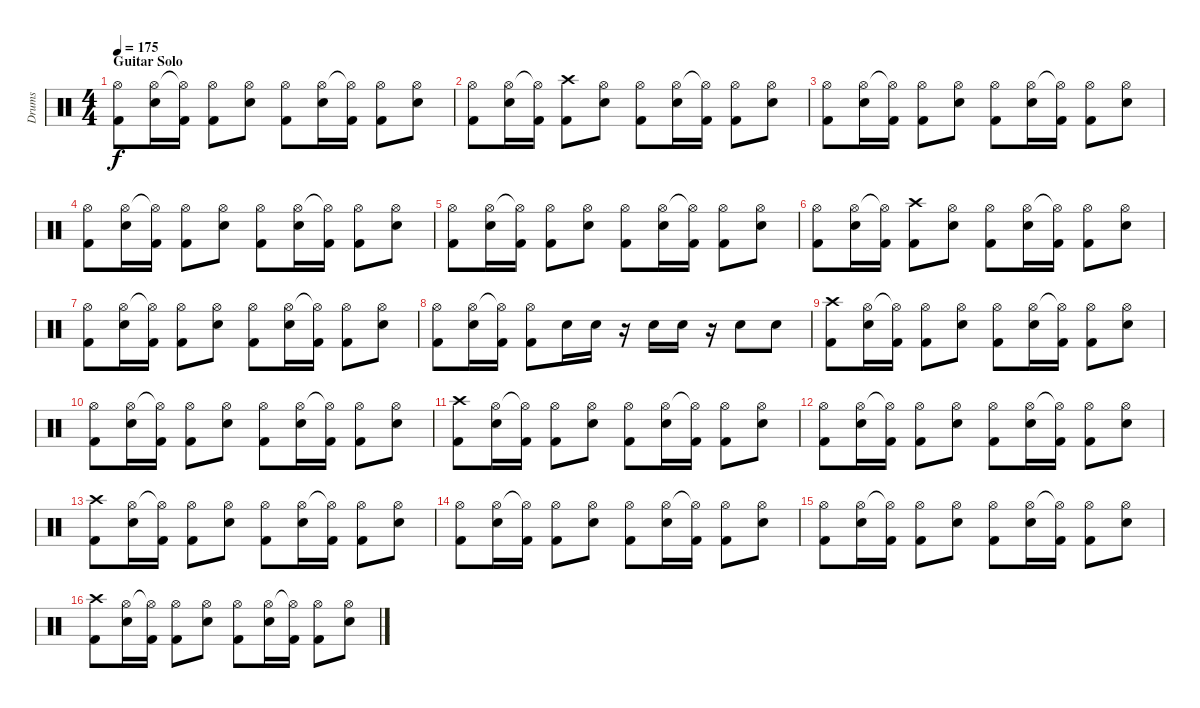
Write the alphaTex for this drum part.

\track ("Drums" "Drums") {instrument percussion}
\staff {score}
\articulation defaults
\ts (4 4)
\section ("" "Guitar Solo")
\tempo 175
\clef neutral
\ks c
("Hi-Hat (open)" "Kick (hit) 2").8{dy f} ("Hi-Hat (open)" "Electric Snare (hit)").16 ("Hi-Hat (open)"{t} "Kick (hit) 2").16 ("Hi-Hat (open)" "Kick (hit) 2").8 ("Hi-Hat (open)" "Electric Snare (hit)").8 ("Hi-Hat (open)" "Kick (hit) 2").8 ("Hi-Hat (open)" "Electric Snare (hit)").16 ("Hi-Hat (open)"{t} "Kick (hit) 2").16 ("Hi-Hat (open)" "Kick (hit) 2").8 ("Hi-Hat (open)" "Electric Snare (hit)").8 |
("Hi-Hat (open)" "Kick (hit) 2").8 ("Hi-Hat (open)" "Electric Snare (hit)").16 ("Hi-Hat (open)"{t} "Kick (hit) 2").16 ("Crash high (hit)" "Kick (hit) 2").8 ("Hi-Hat (open)" "Electric Snare (hit)").8 ("Hi-Hat (open)" "Kick (hit) 2").8 ("Hi-Hat (open)" "Electric Snare (hit)").16 ("Hi-Hat (open)"{t} "Kick (hit) 2").16 ("Hi-Hat (open)" "Kick (hit) 2").8 ("Hi-Hat (open)" "Electric Snare (hit)").8 |
("Hi-Hat (open)" "Kick (hit) 2").8 ("Hi-Hat (open)" "Electric Snare (hit)").16 ("Hi-Hat (open)"{t} "Kick (hit) 2").16 ("Hi-Hat (open)" "Kick (hit) 2").8 ("Hi-Hat (open)" "Electric Snare (hit)").8 ("Hi-Hat (open)" "Kick (hit) 2").8 ("Hi-Hat (open)" "Electric Snare (hit)").16 ("Hi-Hat (open)"{t} "Kick (hit) 2").16 ("Hi-Hat (open)" "Kick (hit) 2").8 ("Hi-Hat (open)" "Electric Snare (hit)").8 |
("Hi-Hat (open)" "Kick (hit) 2").8 ("Hi-Hat (open)" "Electric Snare (hit)").16 ("Hi-Hat (open)"{t} "Kick (hit) 2").16 ("Hi-Hat (open)" "Kick (hit) 2").8 ("Hi-Hat (open)" "Electric Snare (hit)").8 ("Hi-Hat (open)" "Kick (hit) 2").8 ("Hi-Hat (open)" "Electric Snare (hit)").16 ("Hi-Hat (open)"{t} "Kick (hit) 2").16 ("Hi-Hat (open)" "Kick (hit) 2").8 ("Hi-Hat (open)" "Electric Snare (hit)").8 |
("Hi-Hat (open)" "Kick (hit) 2").8 ("Hi-Hat (open)" "Electric Snare (hit)").16 ("Hi-Hat (open)"{t} "Kick (hit) 2").16 ("Hi-Hat (open)" "Kick (hit) 2").8 ("Hi-Hat (open)" "Electric Snare (hit)").8 ("Hi-Hat (open)" "Kick (hit) 2").8 ("Hi-Hat (open)" "Electric Snare (hit)").16 ("Hi-Hat (open)"{t} "Kick (hit) 2").16 ("Hi-Hat (open)" "Kick (hit) 2").8 ("Hi-Hat (open)" "Electric Snare (hit)").8 |
("Hi-Hat (open)" "Kick (hit) 2").8 ("Hi-Hat (open)" "Electric Snare (hit)").16 ("Hi-Hat (open)"{t} "Kick (hit) 2").16 ("Crash high (hit)" "Kick (hit) 2").8 ("Hi-Hat (open)" "Electric Snare (hit)").8 ("Hi-Hat (open)" "Kick (hit) 2").8 ("Hi-Hat (open)" "Electric Snare (hit)").16 ("Hi-Hat (open)"{t} "Kick (hit) 2").16 ("Hi-Hat (open)" "Kick (hit) 2").8 ("Hi-Hat (open)" "Electric Snare (hit)").8 |
("Hi-Hat (open)" "Kick (hit) 2").8 ("Hi-Hat (open)" "Electric Snare (hit)").16 ("Hi-Hat (open)"{t} "Kick (hit) 2").16 ("Hi-Hat (open)" "Kick (hit) 2").8 ("Hi-Hat (open)" "Electric Snare (hit)").8 ("Hi-Hat (open)" "Kick (hit) 2").8 ("Hi-Hat (open)" "Electric Snare (hit)").16 ("Hi-Hat (open)"{t} "Kick (hit) 2").16 ("Hi-Hat (open)" "Kick (hit) 2").8 ("Hi-Hat (open)" "Electric Snare (hit)").8 |
("Hi-Hat (open)" "Kick (hit) 2").8 ("Hi-Hat (open)" "Electric Snare (hit)").16 ("Hi-Hat (open)"{t} "Kick (hit) 2").16 ("Hi-Hat (open)" "Kick (hit) 2").8 "Electric Snare (hit)".16 "Electric Snare (hit)".16 r.16 "Electric Snare (hit)".16 "Electric Snare (hit)".16 r.16 "Electric Snare (hit)".8 "Electric Snare (hit)".8 |
("Crash high (hit)" "Kick (hit) 2").8 ("Hi-Hat (open)" "Electric Snare (hit)").16 ("Hi-Hat (open)"{t} "Kick (hit) 2").16 ("Hi-Hat (open)" "Kick (hit) 2").8 ("Hi-Hat (open)" "Electric Snare (hit)").8 ("Hi-Hat (open)" "Kick (hit) 2").8 ("Hi-Hat (open)" "Electric Snare (hit)").16 ("Hi-Hat (open)"{t} "Kick (hit) 2").16 ("Hi-Hat (open)" "Kick (hit) 2").8 ("Hi-Hat (open)" "Electric Snare (hit)").8 |
("Hi-Hat (open)" "Kick (hit) 2").8 ("Hi-Hat (open)" "Electric Snare (hit)").16 ("Hi-Hat (open)"{t} "Kick (hit) 2").16 ("Hi-Hat (open)" "Kick (hit) 2").8 ("Hi-Hat (open)" "Electric Snare (hit)").8 ("Hi-Hat (open)" "Kick (hit) 2").8 ("Hi-Hat (open)" "Electric Snare (hit)").16 ("Hi-Hat (open)"{t} "Kick (hit) 2").16 ("Hi-Hat (open)" "Kick (hit) 2").8 ("Hi-Hat (open)" "Electric Snare (hit)").8 |
("Crash high (hit)" "Kick (hit) 2").8 ("Hi-Hat (open)" "Electric Snare (hit)").16 ("Hi-Hat (open)"{t} "Kick (hit) 2").16 ("Hi-Hat (open)" "Kick (hit) 2").8 ("Hi-Hat (open)" "Electric Snare (hit)").8 ("Hi-Hat (open)" "Kick (hit) 2").8 ("Hi-Hat (open)" "Electric Snare (hit)").16 ("Hi-Hat (open)"{t} "Kick (hit) 2").16 ("Hi-Hat (open)" "Kick (hit) 2").8 ("Hi-Hat (open)" "Electric Snare (hit)").8 |
("Hi-Hat (open)" "Kick (hit) 2").8 ("Hi-Hat (open)" "Electric Snare (hit)").16 ("Hi-Hat (open)"{t} "Kick (hit) 2").16 ("Hi-Hat (open)" "Kick (hit) 2").8 ("Hi-Hat (open)" "Electric Snare (hit)").8 ("Hi-Hat (open)" "Kick (hit) 2").8 ("Hi-Hat (open)" "Electric Snare (hit)").16 ("Hi-Hat (open)"{t} "Kick (hit) 2").16 ("Hi-Hat (open)" "Kick (hit) 2").8 ("Hi-Hat (open)" "Electric Snare (hit)").8 |
("Crash high (hit)" "Kick (hit) 2").8 ("Hi-Hat (open)" "Electric Snare (hit)").16 ("Hi-Hat (open)"{t} "Kick (hit) 2").16 ("Hi-Hat (open)" "Kick (hit) 2").8 ("Hi-Hat (open)" "Electric Snare (hit)").8 ("Hi-Hat (open)" "Kick (hit) 2").8 ("Hi-Hat (open)" "Electric Snare (hit)").16 ("Hi-Hat (open)"{t} "Kick (hit) 2").16 ("Hi-Hat (open)" "Kick (hit) 2").8 ("Hi-Hat (open)" "Electric Snare (hit)").8 |
("Hi-Hat (open)" "Kick (hit) 2").8 ("Hi-Hat (open)" "Electric Snare (hit)").16 ("Hi-Hat (open)"{t} "Kick (hit) 2").16 ("Hi-Hat (open)" "Kick (hit) 2").8 ("Hi-Hat (open)" "Electric Snare (hit)").8 ("Hi-Hat (open)" "Kick (hit) 2").8 ("Hi-Hat (open)" "Electric Snare (hit)").16 ("Hi-Hat (open)"{t} "Kick (hit) 2").16 ("Hi-Hat (open)" "Kick (hit) 2").8 ("Hi-Hat (open)" "Electric Snare (hit)").8 |
("Hi-Hat (open)" "Kick (hit) 2").8 ("Hi-Hat (open)" "Electric Snare (hit)").16 ("Hi-Hat (open)"{t} "Kick (hit) 2").16 ("Hi-Hat (open)" "Kick (hit) 2").8 ("Hi-Hat (open)" "Electric Snare (hit)").8 ("Hi-Hat (open)" "Kick (hit) 2").8 ("Hi-Hat (open)" "Electric Snare (hit)").16 ("Hi-Hat (open)"{t} "Kick (hit) 2").16 ("Hi-Hat (open)" "Kick (hit) 2").8 ("Hi-Hat (open)" "Electric Snare (hit)").8 |
("Crash high (hit)" "Kick (hit) 2").8 ("Hi-Hat (open)" "Electric Snare (hit)").16 ("Hi-Hat (open)"{t} "Kick (hit) 2").16 ("Hi-Hat (open)" "Kick (hit) 2").8 ("Hi-Hat (open)" "Electric Snare (hit)").8 ("Hi-Hat (open)" "Kick (hit) 2").8 ("Hi-Hat (open)" "Electric Snare (hit)").16 ("Hi-Hat (open)"{t} "Kick (hit) 2").16 ("Hi-Hat (open)" "Kick (hit) 2").8 ("Hi-Hat (open)" "Electric Snare (hit)").8
